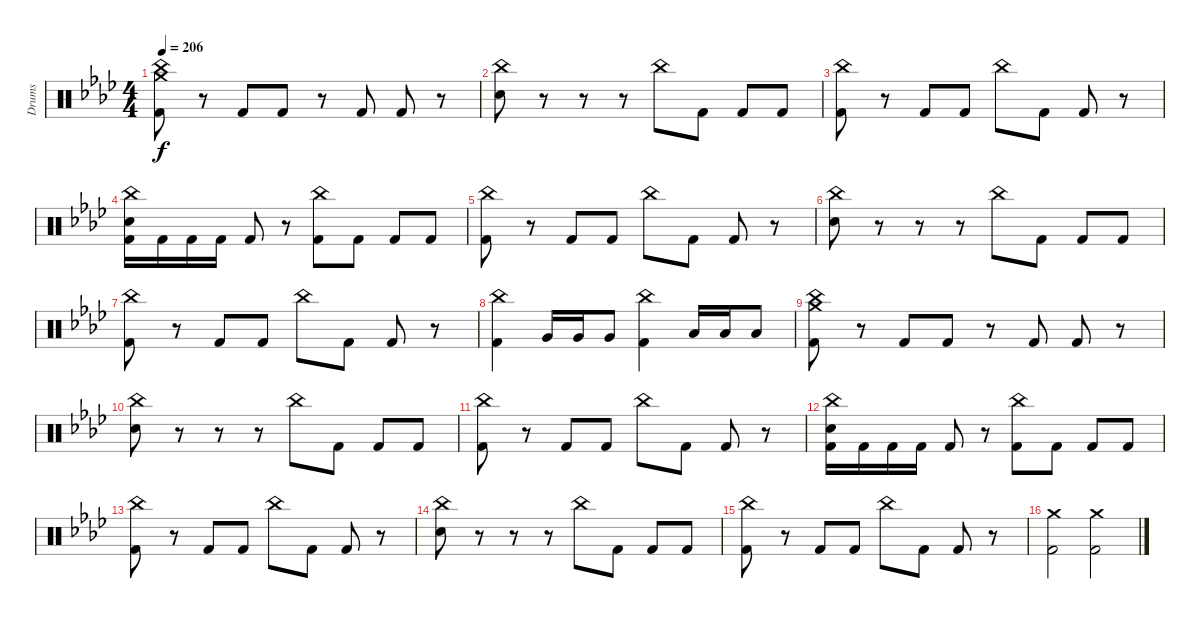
\track ("Drums" "Drums") {instrument percussion}
\staff {score}
\articulation defaults
\ts (4 4)
\tempo 206
\clef neutral
\ks fminor
("Crash medium (hit)" "China (hit)" "Kick (hit) 2").8{dy f} r.8 "Kick (hit) 2".8 "Kick (hit) 2".8 r.8 "Kick (hit) 2".8 "Kick (hit) 2".8 r.8 |
("China (hit)" "Electric Snare (hit)").8 r.8 r.8 r.8 "China (hit)".8 "Kick (hit) 2".8 "Kick (hit) 2".8 "Kick (hit) 2".8 |
("China (hit)" "Kick (hit) 2").8 r.8 "Kick (hit) 2".8 "Kick (hit) 2".8 "China (hit)".8 "Kick (hit) 2".8 "Kick (hit) 2".8 r.8 |
("China (hit)" "Electric Snare (hit)" "Kick (hit) 2").16 "Kick (hit) 2".16 "Kick (hit) 2".16 "Kick (hit) 2".16 "Kick (hit) 2".8 r.8 ("China (hit)" "Kick (hit) 2").8 "Kick (hit) 2".8 "Kick (hit) 2".8 "Kick (hit) 2".8 |
("China (hit)" "Kick (hit) 2").8 r.8 "Kick (hit) 2".8 "Kick (hit) 2".8 "China (hit)".8 "Kick (hit) 2".8 "Kick (hit) 2".8 r.8 |
("China (hit)" "Electric Snare (hit)").8 r.8 r.8 r.8 "China (hit)".8 "Kick (hit) 2".8 "Kick (hit) 2".8 "Kick (hit) 2".8 |
("China (hit)" "Kick (hit) 2").8 r.8 "Kick (hit) 2".8 "Kick (hit) 2".8 "China (hit)".8 "Kick (hit) 2".8 "Kick (hit) 2".8 r.8 |
("China (hit)" "Kick (hit) 2").4 "Very Low Tom (hit)".16 "Very Low Tom (hit)".16 "Very Low Tom (hit)".8 ("China (hit)" "Kick (hit) 2").4 "Low Floor Tom (hit)".16 "Low Floor Tom (hit)".16 "Low Floor Tom (hit)".8 |
("Crash medium (hit)" "China (hit)" "Kick (hit) 2").8 r.8 "Kick (hit) 2".8 "Kick (hit) 2".8 r.8 "Kick (hit) 2".8 "Kick (hit) 2".8 r.8 |
("China (hit)" "Electric Snare (hit)").8 r.8 r.8 r.8 "China (hit)".8 "Kick (hit) 2".8 "Kick (hit) 2".8 "Kick (hit) 2".8 |
("China (hit)" "Kick (hit) 2").8 r.8 "Kick (hit) 2".8 "Kick (hit) 2".8 "China (hit)".8 "Kick (hit) 2".8 "Kick (hit) 2".8 r.8 |
("China (hit)" "Electric Snare (hit)" "Kick (hit) 2").16 "Kick (hit) 2".16 "Kick (hit) 2".16 "Kick (hit) 2".16 "Kick (hit) 2".8 r.8 ("China (hit)" "Kick (hit) 2").8 "Kick (hit) 2".8 "Kick (hit) 2".8 "Kick (hit) 2".8 |
("China (hit)" "Kick (hit) 2").8 r.8 "Kick (hit) 2".8 "Kick (hit) 2".8 "China (hit)".8 "Kick (hit) 2".8 "Kick (hit) 2".8 r.8 |
("China (hit)" "Electric Snare (hit)").8 r.8 r.8 r.8 "China (hit)".8 "Kick (hit) 2".8 "Kick (hit) 2".8 "Kick (hit) 2".8 |
("China (hit)" "Kick (hit) 2").8 r.8 "Kick (hit) 2".8 "Kick (hit) 2".8 "China (hit)".8 "Kick (hit) 2".8 "Kick (hit) 2".8 r.8 |
("Crash medium (hit)" "Kick (hit) 2").2 ("Crash medium (hit)" "Kick (hit) 2").2
